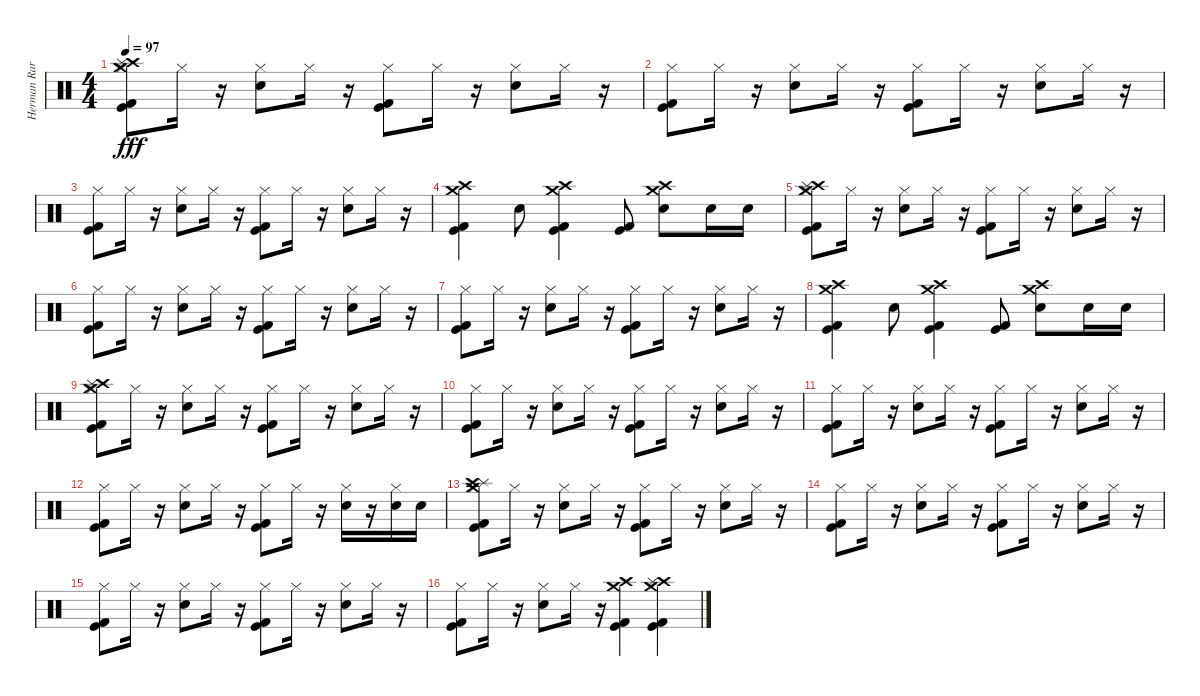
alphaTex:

\track ("Herman Rarebel" "Herman Rar") {instrument percussion}
\staff {score}
\articulation defaults
\ts (4 4)
\tempo 97
\clef neutral
\ks c
("Hi-Hat (closed)" "Crash high (hit)" "Splash (hit)" "Crash medium (hit)" "Kick (hit)" "Kick (hit) 2").8{dy fff} "Hi-Hat (closed)".16 r.16 ("Snare (hit) 2" "Hi-Hat (closed)").8 "Hi-Hat (closed)".16 r.16 ("Kick (hit) 2" "Kick (hit)" "Hi-Hat (closed)").8 "Hi-Hat (closed)".16 r.16 ("Snare (hit) 2" "Hi-Hat (closed)").8 "Hi-Hat (closed)".16 r.16 |
("Hi-Hat (closed)" "Kick (hit)" "Kick (hit) 2").8 "Hi-Hat (closed)".16 r.16 ("Snare (hit) 2" "Hi-Hat (closed)").8 "Hi-Hat (closed)".16 r.16 ("Kick (hit) 2" "Kick (hit)" "Hi-Hat (closed)").8 "Hi-Hat (closed)".16 r.16 ("Snare (hit) 2" "Hi-Hat (closed)").8 "Hi-Hat (closed)".16 r.16 |
("Hi-Hat (closed)" "Kick (hit)" "Kick (hit) 2").8 "Hi-Hat (closed)".16 r.16 ("Snare (hit) 2" "Hi-Hat (closed)").8 "Hi-Hat (closed)".16 r.16 ("Kick (hit) 2" "Kick (hit)" "Hi-Hat (closed)").8 "Hi-Hat (closed)".16 r.16 ("Snare (hit) 2" "Hi-Hat (closed)").8 "Hi-Hat (closed)".16 r.16 |
("Crash medium (hit)" "Crash high (hit)" "Kick (hit)" "Kick (hit) 2").4 "Snare (hit) 2".8 ("Crash medium (hit)" "Crash high (hit)" "Kick (hit)" "Kick (hit) 2").4 ("Kick (hit)" "Kick (hit) 2").8 ("Crash medium (hit)" "Crash high (hit)" "Snare (hit) 2").8 "Snare (hit) 2".16 "Snare (hit) 2".16 |
("Hi-Hat (closed)" "Crash high (hit)" "Splash (hit)" "Crash medium (hit)" "Kick (hit)" "Kick (hit) 2").8 "Hi-Hat (closed)".16 r.16 ("Snare (hit) 2" "Hi-Hat (closed)").8 "Hi-Hat (closed)".16 r.16 ("Kick (hit) 2" "Kick (hit)" "Hi-Hat (closed)").8 "Hi-Hat (closed)".16 r.16 ("Snare (hit) 2" "Hi-Hat (closed)").8 "Hi-Hat (closed)".16 r.16 |
("Hi-Hat (closed)" "Kick (hit)" "Kick (hit) 2").8 "Hi-Hat (closed)".16 r.16 ("Snare (hit) 2" "Hi-Hat (closed)").8 "Hi-Hat (closed)".16 r.16 ("Kick (hit) 2" "Kick (hit)" "Hi-Hat (closed)").8 "Hi-Hat (closed)".16 r.16 ("Snare (hit) 2" "Hi-Hat (closed)").8 "Hi-Hat (closed)".16 r.16 |
("Hi-Hat (closed)" "Kick (hit)" "Kick (hit) 2").8 "Hi-Hat (closed)".16 r.16 ("Snare (hit) 2" "Hi-Hat (closed)").8 "Hi-Hat (closed)".16 r.16 ("Kick (hit) 2" "Kick (hit)" "Hi-Hat (closed)").8 "Hi-Hat (closed)".16 r.16 ("Snare (hit) 2" "Hi-Hat (closed)").8 "Hi-Hat (closed)".16 r.16 |
("Kick (hit) 2" "Kick (hit)" "Crash high (hit)" "Crash medium (hit)").4 "Snare (hit) 2".8 ("Crash medium (hit)" "Crash high (hit)" "Kick (hit)" "Kick (hit) 2").4 ("Kick (hit)" "Kick (hit) 2").8 ("Crash medium (hit)" "Crash high (hit)" "Snare (hit) 2").8 "Snare (hit) 2".16 "Snare (hit) 2".16 |
("Hi-Hat (closed)" "Crash high (hit)" "Splash (hit)" "Crash medium (hit)" "Kick (hit)" "Kick (hit) 2").8 "Hi-Hat (closed)".16 r.16 ("Snare (hit) 2" "Hi-Hat (closed)").8 "Hi-Hat (closed)".16 r.16 ("Kick (hit) 2" "Kick (hit)" "Hi-Hat (closed)").8 "Hi-Hat (closed)".16 r.16 ("Snare (hit) 2" "Hi-Hat (closed)").8 "Hi-Hat (closed)".16 r.16 |
("Hi-Hat (closed)" "Kick (hit)" "Kick (hit) 2").8 "Hi-Hat (closed)".16 r.16 ("Snare (hit) 2" "Hi-Hat (closed)").8 "Hi-Hat (closed)".16 r.16 ("Kick (hit) 2" "Kick (hit)" "Hi-Hat (closed)").8 "Hi-Hat (closed)".16 r.16 ("Snare (hit) 2" "Hi-Hat (closed)").8 "Hi-Hat (closed)".16 r.16 |
("Hi-Hat (closed)" "Kick (hit)" "Kick (hit) 2").8 "Hi-Hat (closed)".16 r.16 ("Snare (hit) 2" "Hi-Hat (closed)").8 "Hi-Hat (closed)".16 r.16 ("Kick (hit) 2" "Kick (hit)" "Hi-Hat (closed)").8 "Hi-Hat (closed)".16 r.16 ("Snare (hit) 2" "Hi-Hat (closed)").8 "Hi-Hat (closed)".16 r.16 |
("Hi-Hat (closed)" "Kick (hit)" "Kick (hit) 2").8 "Hi-Hat (closed)".16 r.16 ("Snare (hit) 2" "Hi-Hat (closed)").8 "Hi-Hat (closed)".16 r.16 ("Kick (hit) 2" "Kick (hit)" "Hi-Hat (closed)").8 "Hi-Hat (closed)".16 r.16 ("Hi-Hat (closed)" "Snare (hit) 2").16 r.16 ("Hi-Hat (closed)" "Snare (hit) 2").16 "Snare (hit) 2".16 |
("Kick (hit) 2" "Kick (hit)" "Crash medium (hit)" "Splash (hit)" "Crash high (hit)" "Hi-Hat (closed)").8 "Hi-Hat (closed)".16 r.16 ("Snare (hit) 2" "Hi-Hat (closed)").8 "Hi-Hat (closed)".16 r.16 ("Kick (hit) 2" "Kick (hit)" "Hi-Hat (closed)").8 "Hi-Hat (closed)".16 r.16 ("Snare (hit) 2" "Hi-Hat (closed)").8 "Hi-Hat (closed)".16 r.16 |
("Hi-Hat (closed)" "Kick (hit)" "Kick (hit) 2").8 "Hi-Hat (closed)".16 r.16 ("Snare (hit) 2" "Hi-Hat (closed)").8 "Hi-Hat (closed)".16 r.16 ("Kick (hit) 2" "Kick (hit)" "Hi-Hat (closed)").8 "Hi-Hat (closed)".16 r.16 ("Snare (hit) 2" "Hi-Hat (closed)").8 "Hi-Hat (closed)".16 r.16 |
("Hi-Hat (closed)" "Kick (hit)" "Kick (hit) 2").8 "Hi-Hat (closed)".16 r.16 ("Snare (hit) 2" "Hi-Hat (closed)").8 "Hi-Hat (closed)".16 r.16 ("Kick (hit) 2" "Kick (hit)" "Hi-Hat (closed)").8 "Hi-Hat (closed)".16 r.16 ("Snare (hit) 2" "Hi-Hat (closed)").8 "Hi-Hat (closed)".16 r.16 |
("Hi-Hat (closed)" "Kick (hit)" "Kick (hit) 2").8 "Hi-Hat (closed)".16 r.16 ("Hi-Hat (closed)" "Snare (hit) 2").8 "Hi-Hat (closed)".16 r.16 ("Kick (hit) 2" "Kick (hit)" "Crash high (hit)" "Crash medium (hit)").4 ("Kick (hit) 2" "Kick (hit)" "Crash high (hit)" "Crash medium (hit)" "Splash (hit)").4
